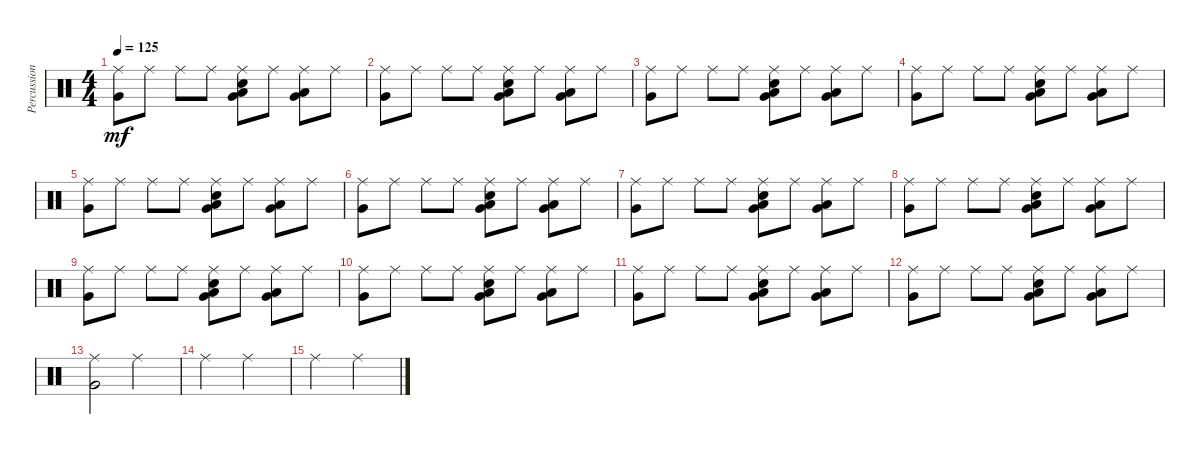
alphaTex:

\track ("Percussion" "Percussion") {instrument percussion}
\staff {score}
\articulation defaults
\ts (4 4)
\tempo 125
\clef neutral
\ks c
("Very Low Tom (hit)" "Ride (middle)").8{dy mf} "Ride (middle)".8 "Ride (middle)".8 "Ride (middle)".8 ("Very Low Tom (hit)" "Snare (hit) 2" "Low Floor Tom (hit)" "Ride (middle)").8 "Ride (middle)".8 ("Very Low Tom (hit)" "Low Floor Tom (hit)" "Ride (middle)").8 "Ride (middle)".8 |
("Very Low Tom (hit)" "Ride (middle)").8 "Ride (middle)".8 "Ride (middle)".8 "Ride (middle)".8 ("Very Low Tom (hit)" "Snare (hit) 2" "Low Floor Tom (hit)" "Ride (middle)").8 "Ride (middle)".8 ("Very Low Tom (hit)" "Low Floor Tom (hit)" "Ride (middle)").8 "Ride (middle)".8 |
("Very Low Tom (hit)" "Ride (middle)").8 "Ride (middle)".8 "Ride (middle)".8 "Ride (middle)".8 ("Very Low Tom (hit)" "Snare (hit) 2" "Low Floor Tom (hit)" "Ride (middle)").8 "Ride (middle)".8 ("Very Low Tom (hit)" "Low Floor Tom (hit)" "Ride (middle)").8 "Ride (middle)".8 |
("Very Low Tom (hit)" "Ride (middle)").8 "Ride (middle)".8 "Ride (middle)".8 "Ride (middle)".8 ("Very Low Tom (hit)" "Snare (hit) 2" "Low Floor Tom (hit)" "Ride (middle)").8 "Ride (middle)".8 ("Very Low Tom (hit)" "Low Floor Tom (hit)" "Ride (middle)").8 "Ride (middle)".8 |
("Very Low Tom (hit)" "Ride (middle)").8 "Ride (middle)".8 "Ride (middle)".8 "Ride (middle)".8 ("Very Low Tom (hit)" "Snare (hit) 2" "Low Floor Tom (hit)" "Ride (middle)").8 "Ride (middle)".8 ("Very Low Tom (hit)" "Low Floor Tom (hit)" "Ride (middle)").8 "Ride (middle)".8 |
("Very Low Tom (hit)" "Ride (middle)").8 "Ride (middle)".8 "Ride (middle)".8 "Ride (middle)".8 ("Very Low Tom (hit)" "Snare (hit) 2" "Low Floor Tom (hit)" "Ride (middle)").8 "Ride (middle)".8 ("Very Low Tom (hit)" "Low Floor Tom (hit)" "Ride (middle)").8 "Ride (middle)".8 |
("Very Low Tom (hit)" "Ride (middle)").8 "Ride (middle)".8 "Ride (middle)".8 "Ride (middle)".8 ("Very Low Tom (hit)" "Snare (hit) 2" "Low Floor Tom (hit)" "Ride (middle)").8 "Ride (middle)".8 ("Very Low Tom (hit)" "Low Floor Tom (hit)" "Ride (middle)").8 "Ride (middle)".8 |
("Very Low Tom (hit)" "Ride (middle)").8 "Ride (middle)".8 "Ride (middle)".8 "Ride (middle)".8 ("Very Low Tom (hit)" "Snare (hit) 2" "Low Floor Tom (hit)" "Ride (middle)").8 "Ride (middle)".8 ("Very Low Tom (hit)" "Low Floor Tom (hit)" "Ride (middle)").8 "Ride (middle)".8 |
("Very Low Tom (hit)" "Ride (middle)").8 "Ride (middle)".8 "Ride (middle)".8 "Ride (middle)".8 ("Very Low Tom (hit)" "Snare (hit) 2" "Low Floor Tom (hit)" "Ride (middle)").8 "Ride (middle)".8 ("Very Low Tom (hit)" "Low Floor Tom (hit)" "Ride (middle)").8 "Ride (middle)".8 |
("Very Low Tom (hit)" "Ride (middle)").8 "Ride (middle)".8 "Ride (middle)".8 "Ride (middle)".8 ("Very Low Tom (hit)" "Snare (hit) 2" "Low Floor Tom (hit)" "Ride (middle)").8 "Ride (middle)".8 ("Very Low Tom (hit)" "Low Floor Tom (hit)" "Ride (middle)").8 "Ride (middle)".8 |
("Very Low Tom (hit)" "Ride (middle)").8 "Ride (middle)".8 "Ride (middle)".8 "Ride (middle)".8 ("Very Low Tom (hit)" "Snare (hit) 2" "Low Floor Tom (hit)" "Ride (middle)").8 "Ride (middle)".8 ("Very Low Tom (hit)" "Low Floor Tom (hit)" "Ride (middle)").8 "Ride (middle)".8 |
("Very Low Tom (hit)" "Ride (middle)").8 "Ride (middle)".8 "Ride (middle)".8 "Ride (middle)".8 ("Very Low Tom (hit)" "Snare (hit) 2" "Low Floor Tom (hit)" "Ride (middle)").8 "Ride (middle)".8 ("Very Low Tom (hit)" "Low Floor Tom (hit)" "Ride (middle)").8 "Ride (middle)".8 |
("Very Low Tom (hit)" "Ride (middle)").2 "Ride (middle)".2 |
"Ride (middle)".2 "Ride (middle)".2 |
"Ride (middle)".2 "Ride (middle)".2
